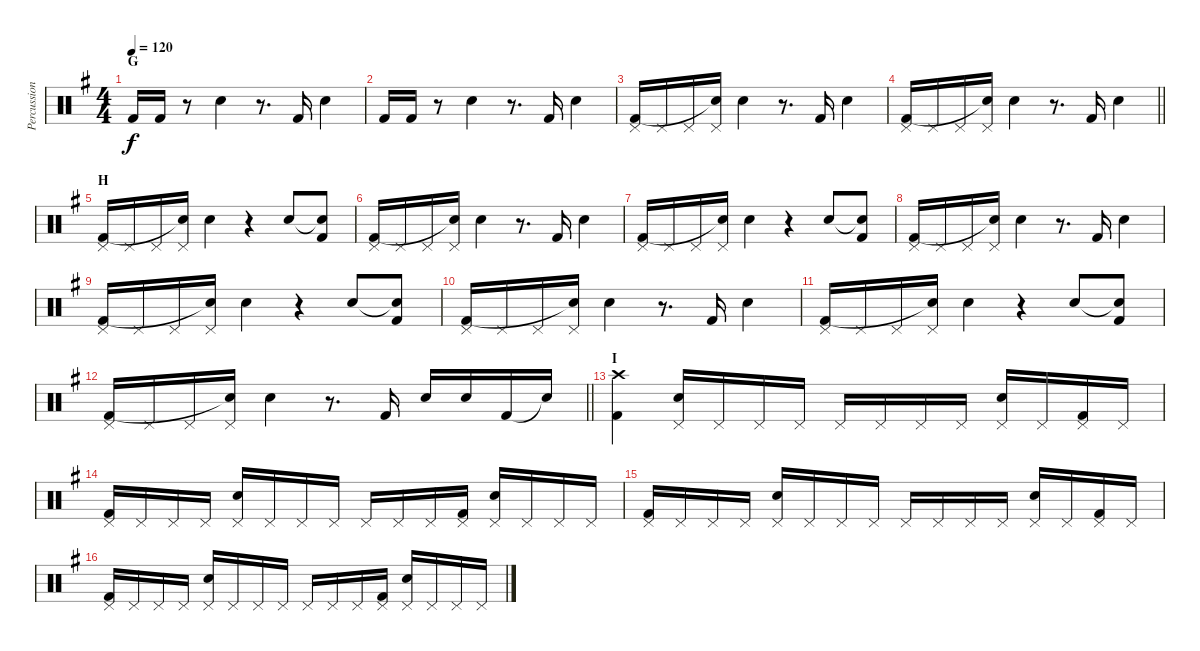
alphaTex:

\track ("Percussion" "Percussion") {instrument percussion}
\staff {score}
\articulation defaults
\ts (4 4)
\section ("" "G")
\tempo 120
\clef neutral
\ks g "Kick (hit) 2".16{dy f} "Kick (hit) 2".16
r.8 "Electric Snare (hit)".4 r.8{d} "Kick (hit) 2".16 "Electric Snare (hit)".4 |
"Kick (hit) 2".16 "Kick (hit) 2".16 r.8 "Electric Snare (hit)".4 r.8{d} "Kick (hit) 2".16 "Electric Snare (hit)".4 |
("Pedal Hi-Hat (hit)" "Kick (hit) 2").16 "Pedal Hi-Hat (hit)".16 "Pedal Hi-Hat (hit)".16 ("Pedal Hi-Hat (hit)" "Snare (hit)"{t}).16 "Electric Snare (hit)".4 r.8{d} "Kick (hit) 2".16 "Electric Snare (hit)".4 |
\barLineRight lightlight
("Pedal Hi-Hat (hit)" "Kick (hit) 2").16 "Pedal Hi-Hat (hit)".16 "Pedal Hi-Hat (hit)".16 ("Pedal Hi-Hat (hit)" "Snare (hit)"{t}).16 "Electric Snare (hit)".4 r.8{d} "Kick (hit) 2".16 "Electric Snare (hit)".4 |
\section ("" "H")
("Pedal Hi-Hat (hit)" "Kick (hit) 2").16 "Pedal Hi-Hat (hit)".16 "Pedal Hi-Hat (hit)".16 ("Pedal Hi-Hat (hit)" "Snare (hit)"{t}).16 "Electric Snare (hit)".4 r.4 "Electric Snare (hit)".8 ("Snare (hit)"{t} "Kick (hit) 2").8 |
("Pedal Hi-Hat (hit)" "Kick (hit) 2").16 "Pedal Hi-Hat (hit)".16 "Pedal Hi-Hat (hit)".16 ("Pedal Hi-Hat (hit)" "Snare (hit)"{t}).16 "Electric Snare (hit)".4 r.8{d} "Kick (hit) 2".16 "Electric Snare (hit)".4 |
("Pedal Hi-Hat (hit)" "Kick (hit) 2").16 "Pedal Hi-Hat (hit)".16 "Pedal Hi-Hat (hit)".16 ("Pedal Hi-Hat (hit)" "Snare (hit)"{t}).16 "Electric Snare (hit)".4 r.4 "Electric Snare (hit)".8 ("Snare (hit)"{t} "Kick (hit) 2").8 |
("Pedal Hi-Hat (hit)" "Kick (hit) 2").16 "Pedal Hi-Hat (hit)".16 "Pedal Hi-Hat (hit)".16 ("Pedal Hi-Hat (hit)" "Snare (hit)"{t}).16 "Electric Snare (hit)".4 r.8{d} "Kick (hit) 2".16 "Electric Snare (hit)".4 |
("Pedal Hi-Hat (hit)" "Kick (hit) 2").16 "Pedal Hi-Hat (hit)".16 "Pedal Hi-Hat (hit)".16 ("Pedal Hi-Hat (hit)" "Snare (hit)"{t}).16 "Electric Snare (hit)".4 r.4 "Electric Snare (hit)".8 ("Snare (hit)"{t} "Kick (hit) 2").8 |
("Pedal Hi-Hat (hit)" "Kick (hit) 2").16 "Pedal Hi-Hat (hit)".16 "Pedal Hi-Hat (hit)".16 ("Pedal Hi-Hat (hit)" "Snare (hit)"{t}).16 "Electric Snare (hit)".4 r.8{d} "Kick (hit) 2".16 "Electric Snare (hit)".4 |
("Pedal Hi-Hat (hit)" "Kick (hit) 2").16 "Pedal Hi-Hat (hit)".16 "Pedal Hi-Hat (hit)".16 ("Pedal Hi-Hat (hit)" "Snare (hit)"{t}).16 "Electric Snare (hit)".4 r.4 "Electric Snare (hit)".8 ("Snare (hit)"{t} "Kick (hit) 2").8 |
\barLineRight lightlight
("Pedal Hi-Hat (hit)" "Kick (hit) 2").16 "Pedal Hi-Hat (hit)".16 "Pedal Hi-Hat (hit)".16 ("Pedal Hi-Hat (hit)" "Snare (hit)"{t}).16 "Electric Snare (hit)".4 r.8{d} "Kick (hit) 2".16 "Electric Snare (hit)".16 "Electric Snare (hit)".16 "Kick (hit) 2".16 "Snare (hit)"{t}.16 |
\section ("" "I")
("Crash high (hit)" "Kick (hit) 2").4 ("Pedal Hi-Hat (hit)" "Electric Snare (hit)").16 "Pedal Hi-Hat (hit)".16 "Pedal Hi-Hat (hit)".16 "Pedal Hi-Hat (hit)".16 "Pedal Hi-Hat (hit)".16 "Pedal Hi-Hat (hit)".16 "Pedal Hi-Hat (hit)".16 "Pedal Hi-Hat (hit)".16 ("Pedal Hi-Hat (hit)" "Electric Snare (hit)").16 "Pedal Hi-Hat (hit)".16 ("Pedal Hi-Hat (hit)" "Kick (hit) 2").16 "Pedal Hi-Hat (hit)".16 |
("Pedal Hi-Hat (hit)" "Kick (hit) 2").16 "Pedal Hi-Hat (hit)".16 "Pedal Hi-Hat (hit)".16 "Pedal Hi-Hat (hit)".16 ("Pedal Hi-Hat (hit)" "Electric Snare (hit)").16 "Pedal Hi-Hat (hit)".16 "Pedal Hi-Hat (hit)".16 "Pedal Hi-Hat (hit)".16 "Pedal Hi-Hat (hit)".16 "Pedal Hi-Hat (hit)".16 "Pedal Hi-Hat (hit)".16 ("Pedal Hi-Hat (hit)" "Kick (hit) 2").16 ("Pedal Hi-Hat (hit)" "Electric Snare (hit)").16 "Pedal Hi-Hat (hit)".16 "Pedal Hi-Hat (hit)".16 "Pedal Hi-Hat (hit)".16 |
("Pedal Hi-Hat (hit)" "Kick (hit) 2").16 "Pedal Hi-Hat (hit)".16 "Pedal Hi-Hat (hit)".16 "Pedal Hi-Hat (hit)".16 ("Pedal Hi-Hat (hit)" "Electric Snare (hit)").16 "Pedal Hi-Hat (hit)".16 "Pedal Hi-Hat (hit)".16 "Pedal Hi-Hat (hit)".16 "Pedal Hi-Hat (hit)".16 "Pedal Hi-Hat (hit)".16 "Pedal Hi-Hat (hit)".16 "Pedal Hi-Hat (hit)".16 ("Pedal Hi-Hat (hit)" "Electric Snare (hit)").16 "Pedal Hi-Hat (hit)".16 ("Pedal Hi-Hat (hit)" "Kick (hit) 2").16 "Pedal Hi-Hat (hit)".16 |
("Pedal Hi-Hat (hit)" "Kick (hit) 2").16 "Pedal Hi-Hat (hit)".16 "Pedal Hi-Hat (hit)".16 "Pedal Hi-Hat (hit)".16 ("Pedal Hi-Hat (hit)" "Electric Snare (hit)").16 "Pedal Hi-Hat (hit)".16 "Pedal Hi-Hat (hit)".16 "Pedal Hi-Hat (hit)".16 "Pedal Hi-Hat (hit)".16 "Pedal Hi-Hat (hit)".16 "Pedal Hi-Hat (hit)".16 ("Pedal Hi-Hat (hit)" "Kick (hit) 2").16 ("Pedal Hi-Hat (hit)" "Electric Snare (hit)").16 "Pedal Hi-Hat (hit)".16 "Pedal Hi-Hat (hit)".16 "Pedal Hi-Hat (hit)".16
